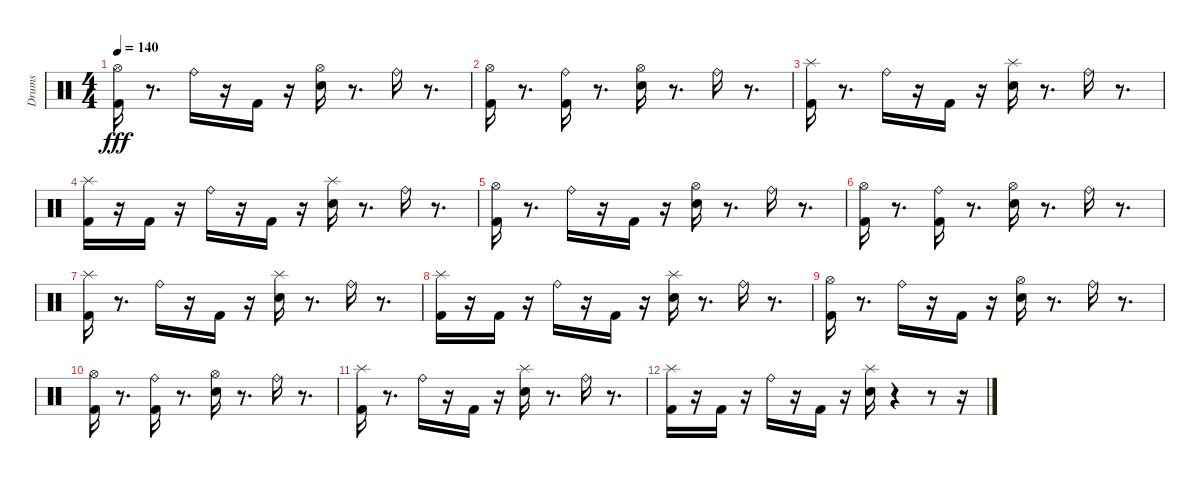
\track ("Drums" "Drums") {instrument percussion}
\staff {score}
\articulation defaults
\ts (4 4)
\tempo 140
\clef neutral
\ks c
("Kick (hit) 2" "Hi-Hat (open)").16{dy fff} r.8{d} "Ride (bell)".16 r.16 "Kick (hit) 2".16 r.16 ("Snare (hit) 2" "Hi-Hat (open)").16 r.8{d} "Ride (bell)".16 r.8{d} |
("Kick (hit) 2" "Hi-Hat (open)").16 r.8{d} ("Kick (hit) 2" "Ride (bell)").16 r.8{d} ("Snare (hit) 2" "Hi-Hat (open)").16 r.8{d} "Ride (bell)".16 r.8{d} |
("Kick (hit) 2" "Splash (hit)").16 r.8{d} "Ride (bell)".16 r.16 "Kick (hit) 2".16 r.16 ("Snare (hit) 2" "Splash (hit)").16 r.8{d} "Ride (bell)".16 r.8{d} |
("Kick (hit) 2" "Splash (hit)").16 r.16 "Kick (hit) 2".16 r.16 "Ride (bell)".16 r.16 "Kick (hit) 2".16 r.16 ("Snare (hit) 2" "Splash (hit)").16 r.8{d} "Ride (bell)".16 r.8{d} |
("Kick (hit) 2" "Hi-Hat (open)").16 r.8{d} "Ride (bell)".16 r.16 "Kick (hit) 2".16 r.16 ("Snare (hit) 2" "Hi-Hat (open)").16 r.8{d} "Ride (bell)".16 r.8{d} |
("Kick (hit) 2" "Hi-Hat (open)").16 r.8{d} ("Kick (hit) 2" "Ride (bell)").16 r.8{d} ("Snare (hit) 2" "Hi-Hat (open)").16 r.8{d} "Ride (bell)".16 r.8{d} |
("Kick (hit) 2" "Splash (hit)").16 r.8{d} "Ride (bell)".16 r.16 "Kick (hit) 2".16 r.16 ("Snare (hit) 2" "Splash (hit)").16 r.8{d} "Ride (bell)".16 r.8{d} |
("Kick (hit) 2" "Splash (hit)").16 r.16 "Kick (hit) 2".16 r.16 "Ride (bell)".16 r.16 "Kick (hit) 2".16 r.16 ("Snare (hit) 2" "Splash (hit)").16 r.8{d} "Ride (bell)".16 r.8{d} |
("Kick (hit) 2" "Hi-Hat (open)").16 r.8{d} "Ride (bell)".16 r.16 "Kick (hit) 2".16 r.16 ("Snare (hit) 2" "Hi-Hat (open)").16 r.8{d} "Ride (bell)".16 r.8{d} |
("Kick (hit) 2" "Hi-Hat (open)").16 r.8{d} ("Kick (hit) 2" "Ride (bell)").16 r.8{d} ("Snare (hit) 2" "Hi-Hat (open)").16 r.8{d} "Ride (bell)".16 r.8{d} |
("Kick (hit) 2" "Splash (hit)").16 r.8{d} "Ride (bell)".16 r.16 "Kick (hit) 2".16 r.16 ("Snare (hit) 2" "Splash (hit)").16 r.8{d} "Ride (bell)".16 r.8{d} |
("Kick (hit) 2" "Splash (hit)").16 r.16 "Kick (hit) 2".16 r.16 "Ride (bell)".16 r.16 "Kick (hit) 2".16 r.16 ("Snare (hit) 2" "Splash (hit)").16 r.4 r.8 r.16
